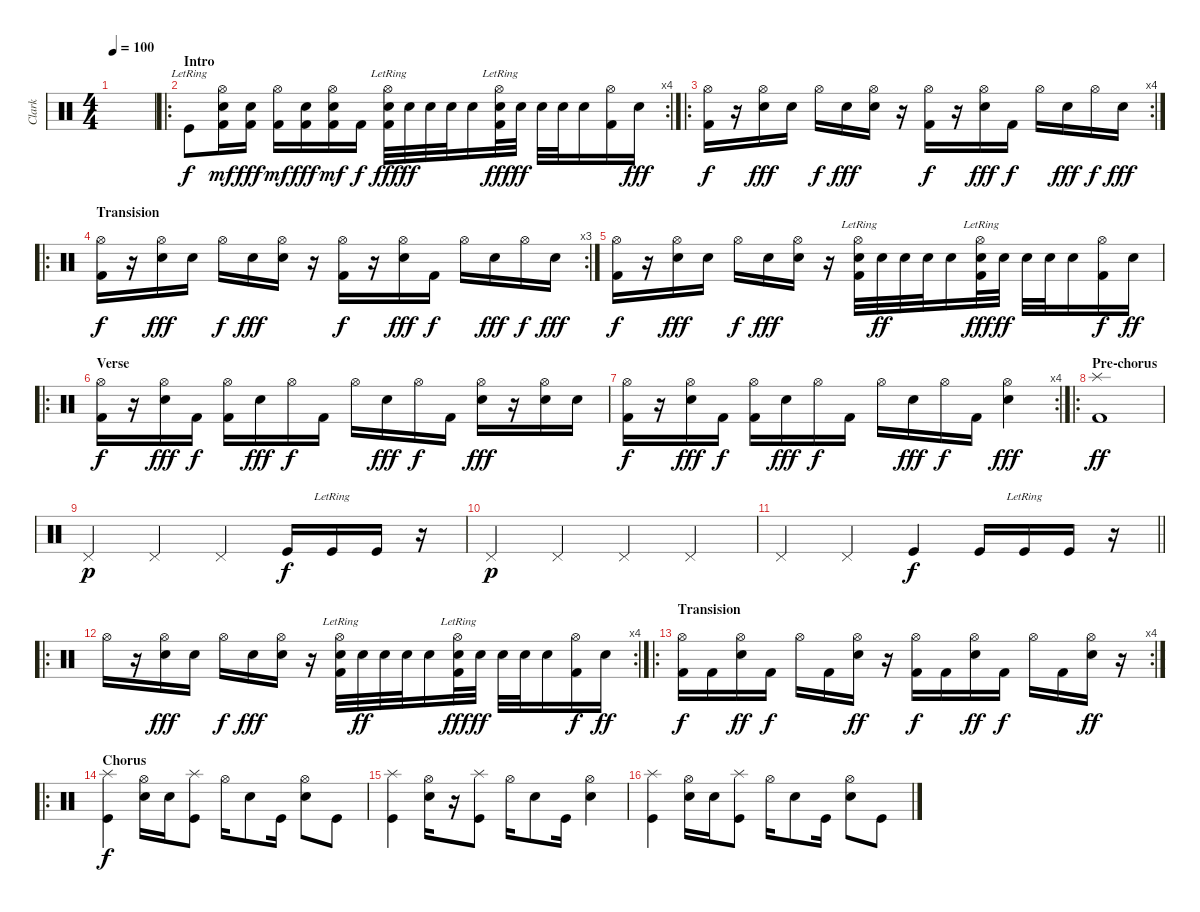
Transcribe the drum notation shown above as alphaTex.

\track ("Clark" "Clark") {instrument percussion}
\staff {score}
\articulation defaults
\ts (4 4)
\tempo 100
\clef neutral
\ks c
|
\ro
\rc 4
\section ("" "Intro")
"Kick (hit)"{lr}.8 ("Hi-Hat (open)" "Electric Snare (hit)" "Kick (hit) 2").16{dy mf} ("Electric Snare (hit)" "Kick (hit) 2").16{dy fff} ("Hi-Hat (open)" "Kick (hit) 2").16{dy mf} ("Electric Snare (hit)" "Kick (hit) 2").16{dy fff} ("Hi-Hat (open)" "Electric Snare (hit)" "Kick (hit) 2").16{dy mf} "Kick (hit) 2".16{dy f} ("Hi-Hat (open)"{lr} "Electric Snare (hit)" "Kick (hit) 2").32{dy fff} "Electric Snare (hit)".32{dy ff} "Electric Snare (hit)".32 "Electric Snare (hit)".32 "Electric Snare (hit)".16 ("Hi-Hat (open)"{lr} "Electric Snare (hit)" "Kick (hit) 2").32{dy fff} "Electric Snare (hit)".32{dy ff} "Electric Snare (hit)".32 "Electric Snare (hit)".32 "Electric Snare (hit)".16 ("Hi-Hat (open)" "Kick (hit) 2").16 "Electric Snare (hit)".16{dy fff} |
\ro
\rc 4
("Hi-Hat (open)" "Kick (hit) 2").16{dy f} r.16 ("Hi-Hat (open)" "Electric Snare (hit)").16{dy fff} "Electric Snare (hit)".16 "Hi-Hat (open)".16{dy f} "Electric Snare (hit)".16{dy fff} ("Hi-Hat (open)" "Electric Snare (hit)").16 r.16 ("Hi-Hat (open)" "Kick (hit) 2").16{dy f} r.16 ("Hi-Hat (open)" "Electric Snare (hit)").16{dy fff} "Kick (hit) 2".16{dy f} "Hi-Hat (open)".16 "Electric Snare (hit)".16{dy fff} "Hi-Hat (open)".16{dy f} "Electric Snare (hit)".16{dy fff} |
\ro
\rc 3
\section ("" "Transision")
("Hi-Hat (open)" "Kick (hit) 2").16{dy f} r.16 ("Hi-Hat (open)" "Electric Snare (hit)").16{dy fff} "Electric Snare (hit)".16 "Hi-Hat (open)".16{dy f} "Electric Snare (hit)".16{dy fff} ("Hi-Hat (open)" "Electric Snare (hit)").16 r.16 ("Hi-Hat (open)" "Kick (hit) 2").16{dy f} r.16 ("Hi-Hat (open)" "Electric Snare (hit)").16{dy fff} "Kick (hit) 2".16{dy f} "Hi-Hat (open)".16 "Electric Snare (hit)".16{dy fff} "Hi-Hat (open)".16{dy f} "Electric Snare (hit)".16{dy fff} |
("Hi-Hat (open)" "Kick (hit) 2").16{dy f} r.16 ("Hi-Hat (open)" "Electric Snare (hit)").16{dy fff} "Electric Snare (hit)".16 "Hi-Hat (open)".16{dy f} "Electric Snare (hit)".16{dy fff} ("Hi-Hat (open)" "Electric Snare (hit)").16 r.16 ("Hi-Hat (open)"{lr} "Electric Snare (hit)" "Kick (hit) 2").32 "Electric Snare (hit)".32{dy ff} "Electric Snare (hit)".32 "Electric Snare (hit)".32 "Electric Snare (hit)".16 ("Hi-Hat (open)"{lr} "Electric Snare (hit)" "Kick (hit) 2").32{dy fff} "Electric Snare (hit)".32{dy ff} "Electric Snare (hit)".32 "Electric Snare (hit)".32 "Electric Snare (hit)".16 ("Hi-Hat (open)" "Kick (hit) 2").16{dy f} "Electric Snare (hit)".16{dy ff} |
\ro
\section ("" "Verse")
("Hi-Hat (open)" "Kick (hit) 2").16{dy f} r.16 ("Hi-Hat (open)" "Electric Snare (hit)").16{dy fff} "Kick (hit) 2".16{dy f} ("Hi-Hat (open)" "Kick (hit) 2").16 "Electric Snare (hit)".16{dy fff} "Hi-Hat (open)".16{dy f} "Kick (hit) 2".16 "Hi-Hat (open)".16 "Electric Snare (hit)".16{dy fff} "Hi-Hat (open)".16{dy f} "Kick (hit) 2".16 ("Hi-Hat (open)" "Electric Snare (hit)").16{dy fff} r.16 ("Hi-Hat (open)" "Electric Snare (hit)").16 "Electric Snare (hit)".16 |
\rc 4
("Hi-Hat (open)" "Kick (hit) 2").16{dy f} r.16 ("Hi-Hat (open)" "Electric Snare (hit)").16{dy fff} "Kick (hit) 2".16{dy f} ("Hi-Hat (open)" "Kick (hit) 2").16 "Electric Snare (hit)".16{dy fff} "Hi-Hat (open)".16{dy f} "Kick (hit) 2".16 "Hi-Hat (open)".16 "Electric Snare (hit)".16{dy fff} "Hi-Hat (open)".16{dy f} "Kick (hit) 2".16 ("Hi-Hat (open)" "Electric Snare (hit)").4{dy fff} |
\ro
\section ("" "Pre-chorus")
("Splash (hit)" "Kick (hit) 2").1{dy ff} |
"Pedal Hi-Hat (hit)".4{dy p} "Pedal Hi-Hat (hit)".4 "Pedal Hi-Hat (hit)".4 "Kick (hit)".16{dy f} "Kick (hit)"{lr}.16 "Kick (hit)".16 r.16 |
"Pedal Hi-Hat (hit)".4{dy p} "Pedal Hi-Hat (hit)".4 "Pedal Hi-Hat (hit)".4 "Pedal Hi-Hat (hit)".4 |
\barLineRight lightlight "Pedal Hi-Hat (hit)".4 "Pedal Hi-Hat (hit)".4 "Kick (hit)".4{dy f} "Kick (hit)".16 "Kick (hit)"{lr}.16 "Kick (hit)".16
r.16 |
\ro
\rc 4 "Hi-Hat (open)".16
r.16 ("Hi-Hat (open)" "Electric Snare (hit)").16{dy fff} "Electric Snare (hit)".16 "Hi-Hat (open)".16{dy f} "Electric Snare (hit)".16{dy fff} ("Hi-Hat (open)" "Electric Snare (hit)").16 r.16 ("Hi-Hat (open)"{lr} "Electric Snare (hit)" "Kick (hit) 2").32 "Electric Snare (hit)".32{dy ff} "Electric Snare (hit)".32 "Electric Snare (hit)".32 "Electric Snare (hit)".16 ("Hi-Hat (open)"{lr} "Electric Snare (hit)" "Kick (hit) 2").32{dy fff} "Electric Snare (hit)".32{dy ff} "Electric Snare (hit)".32 "Electric Snare (hit)".32 "Electric Snare (hit)".16 ("Hi-Hat (open)" "Kick (hit) 2").16{dy f} "Electric Snare (hit)".16{dy ff} |
\ro
\rc 4
\section ("" "Transision")
("Hi-Hat (open)" "Kick (hit) 2").16{dy f} "Kick (hit) 2".16 ("Hi-Hat (open)" "Electric Snare (hit)").16{dy ff} "Kick (hit) 2".16{dy f} "Hi-Hat (open)".16 "Kick (hit) 2".16 ("Hi-Hat (open)" "Electric Snare (hit)").16{dy ff} r.16 ("Hi-Hat (open)" "Kick (hit) 2").16{dy f} "Kick (hit) 2".16 ("Hi-Hat (open)" "Electric Snare (hit)").16{dy ff} "Kick (hit) 2".16{dy f} "Hi-Hat (open)".16 "Kick (hit) 2".16 ("Hi-Hat (open)" "Electric Snare (hit)").16{dy ff} r.16 |
\ro
\section ("" "Chorus")
("Splash (hit)" "Kick (hit)").4{dy f} ("Hi-Hat (open)" "Electric Snare (hit)").16 "Electric Snare (hit)".16 ("Splash (hit)" "Kick (hit)").8 "Hi-Hat (open)".16 "Electric Snare (hit)".8 "Kick (hit)".16 ("Hi-Hat (open)" "Electric Snare (hit)").8 "Kick (hit)".8 |
("Splash (hit)" "Kick (hit)").4 ("Hi-Hat (open)" "Electric Snare (hit)").16 r.16 ("Splash (hit)" "Kick (hit)").8 "Hi-Hat (open)".16 "Electric Snare (hit)".8 "Kick (hit)".16 ("Hi-Hat (open)" "Electric Snare (hit)").4 |
("Splash (hit)" "Kick (hit)").4 ("Hi-Hat (open)" "Electric Snare (hit)").16 "Electric Snare (hit)".16 ("Splash (hit)" "Kick (hit)").8 "Hi-Hat (open)".16 "Electric Snare (hit)".8 "Kick (hit)".16 ("Hi-Hat (open)" "Electric Snare (hit)").8 "Kick (hit)".8
